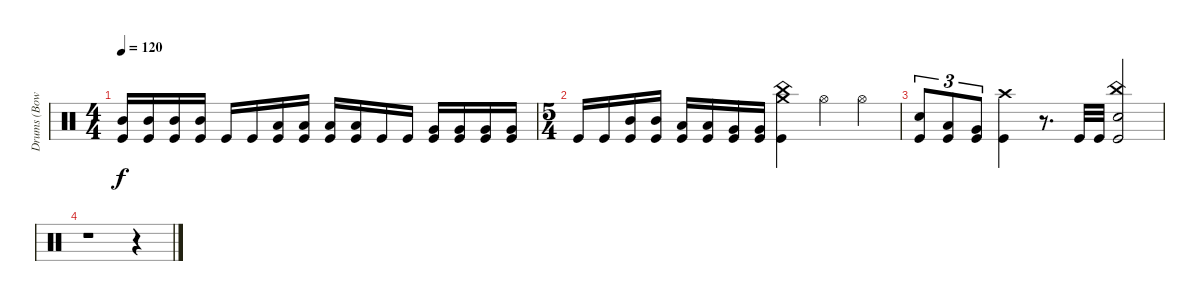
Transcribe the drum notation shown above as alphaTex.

\track ("Drums (Bowders)" "Drums (Bow") {instrument percussion}
\staff {score}
\articulation defaults
\ts (4 4)
\tempo 120
\clef neutral
\ks c
("Kick (hit)" "Mid Tom (hit)").16{dy f} ("Kick (hit)" "Mid Tom (hit)").16 ("Kick (hit)" "Mid Tom (hit)").16 ("Kick (hit)" "Mid Tom (hit)").16 "Kick (hit)".16 "Kick (hit)".16 ("Kick (hit)" "Low Tom (hit)").16 ("Kick (hit)" "Low Tom (hit)").16 ("Kick (hit)" "Low Tom (hit)").16 ("Kick (hit)" "Low Tom (hit)").16 "Kick (hit)".16 "Kick (hit)".16 ("Kick (hit)" "Very Low Tom (hit)").16 ("Kick (hit)" "Very Low Tom (hit)").16 ("Kick (hit)" "Very Low Tom (hit)").16 ("Kick (hit)" "Very Low Tom (hit)").16 |
\ts (5 4)
"Kick (hit)".16 "Kick (hit)".16 ("Kick (hit)" "Mid Tom (hit)").16 ("Kick (hit)" "Mid Tom (hit)").16 ("Kick (hit)" "Low Tom (hit)").16 ("Kick (hit)" "Low Tom (hit)").16 ("Kick (hit)" "Very Low Tom (hit)").16 ("Kick (hit)" "Very Low Tom (hit)").16 ("Kick (hit)" "Crash medium (hit)" "China (hit)").4 "Hi-Hat (open)".4 "Hi-Hat (open)".4 |
("Kick (hit)" "Snare (hit) 2").8{tu (3 2)} ("Kick (hit)" "Low Tom (hit)").8{tu (3 2)} ("Kick (hit)" "Very Low Tom (hit)").8{tu (3 2)} ("Kick (hit)" "Crash high (hit)").4 r.8{d} "Kick (hit)".32 "Kick (hit)".32 ("Kick (hit)" "China (hit)" "Snare (hit) 2").2 |
r.1 r.4
